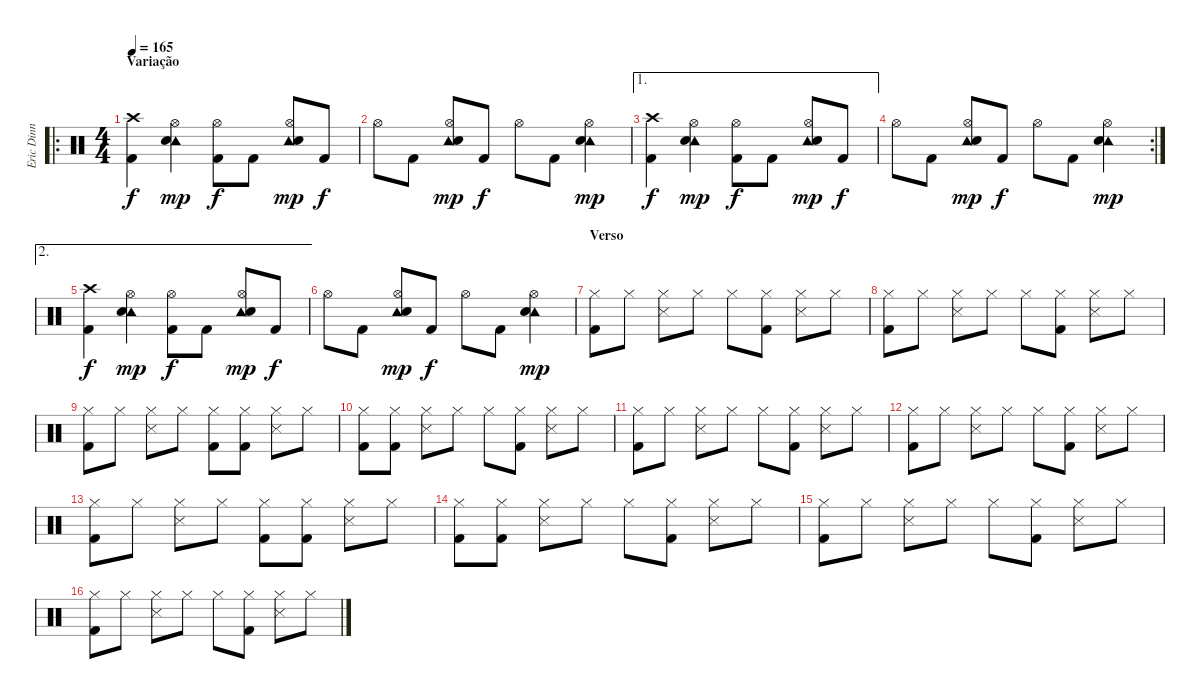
\track ("Eric Dinn" "Eric Dinn") {instrument percussion}
\staff {score}
\articulation defaults
\ro
\ts (4 4)
\section ("" "Variação")
\tempo 165
\clef neutral
\ks c
("Crash high (hit)" "Kick (hit) 2").4{dy f} ("Tambourine (hit)" "Hi-Hat (open)" "Snare (hit) 2").4{dy mp} ("Hi-Hat (open)" "Kick (hit) 2").8{dy f} "Kick (hit) 2".8 ("Tambourine (hit)" "Hi-Hat (open)" "Snare (hit) 2").8{dy mp} "Kick (hit) 2".8{dy f} |
"Hi-Hat (open)".8 "Kick (hit) 2".8 ("Tambourine (hit)" "Hi-Hat (open)" "Snare (hit) 2").8{dy mp} "Kick (hit) 2".8{dy f} "Hi-Hat (open)".8 "Kick (hit) 2".8 ("Tambourine (hit)" "Hi-Hat (open)" "Snare (hit) 2").4{dy mp} |
\ae 1
("Crash high (hit)" "Kick (hit) 2").4{dy f} ("Tambourine (hit)" "Hi-Hat (open)" "Snare (hit) 2").4{dy mp} ("Hi-Hat (open)" "Kick (hit) 2").8{dy f} "Kick (hit) 2".8 ("Tambourine (hit)" "Hi-Hat (open)" "Snare (hit) 2").8{dy mp} "Kick (hit) 2".8{dy f} |
\rc 2 "Hi-Hat (open)".8 "Kick (hit) 2".8
("Tambourine (hit)" "Hi-Hat (open)" "Snare (hit) 2").8{dy mp} "Kick (hit) 2".8{dy f} "Hi-Hat (open)".8 "Kick (hit) 2".8 ("Tambourine (hit)" "Hi-Hat (open)" "Snare (hit) 2").4{dy mp} |
\ae 2
("Crash high (hit)" "Kick (hit) 2").4{dy f} ("Tambourine (hit)" "Hi-Hat (open)" "Snare (hit) 2").4{dy mp} ("Hi-Hat (open)" "Kick (hit) 2").8{dy f} "Kick (hit) 2".8 ("Tambourine (hit)" "Hi-Hat (open)" "Snare (hit) 2").8{dy mp} "Kick (hit) 2".8{dy f} |
"Hi-Hat (open)".8 "Kick (hit) 2".8 ("Tambourine (hit)" "Hi-Hat (open)" "Snare (hit) 2").8{dy mp} "Kick (hit) 2".8{dy f} "Hi-Hat (open)".8 "Kick (hit) 2".8 ("Tambourine (hit)" "Hi-Hat (open)" "Snare (hit) 2").4{dy mp} |
\section ("" "Verso")
("Hi-Hat (closed)" "Kick (hit) 2").8 "Hi-Hat (closed)".8 ("Hi-Hat (closed)" "Snare (side stick) 3").8 "Hi-Hat (closed)".8 "Hi-Hat (closed)".8 ("Hi-Hat (closed)" "Kick (hit) 2").8 ("Hi-Hat (closed)" "Snare (side stick) 3").8 "Hi-Hat (closed)".8 |
("Hi-Hat (closed)" "Kick (hit) 2").8 "Hi-Hat (closed)".8 ("Hi-Hat (closed)" "Snare (side stick) 3").8 "Hi-Hat (closed)".8 "Hi-Hat (closed)".8 ("Hi-Hat (closed)" "Kick (hit) 2").8 ("Hi-Hat (closed)" "Snare (side stick) 3").8 "Hi-Hat (closed)".8 |
("Hi-Hat (closed)" "Kick (hit) 2").8 "Hi-Hat (closed)".8 ("Hi-Hat (closed)" "Snare (side stick) 3").8 "Hi-Hat (closed)".8 ("Hi-Hat (closed)" "Kick (hit) 2").8 ("Hi-Hat (closed)" "Kick (hit) 2").8 ("Hi-Hat (closed)" "Snare (side stick) 3").8 "Hi-Hat (closed)".8 |
("Hi-Hat (closed)" "Kick (hit) 2").8 ("Hi-Hat (closed)" "Kick (hit) 2").8 ("Hi-Hat (closed)" "Snare (side stick) 3").8 "Hi-Hat (closed)".8 "Hi-Hat (closed)".8 ("Hi-Hat (closed)" "Kick (hit) 2").8 ("Hi-Hat (closed)" "Snare (side stick) 3").8 "Hi-Hat (closed)".8 |
("Hi-Hat (closed)" "Kick (hit) 2").8 "Hi-Hat (closed)".8 ("Hi-Hat (closed)" "Snare (side stick) 3").8 "Hi-Hat (closed)".8 "Hi-Hat (closed)".8 ("Hi-Hat (closed)" "Kick (hit) 2").8 ("Hi-Hat (closed)" "Snare (side stick) 3").8 "Hi-Hat (closed)".8 |
("Hi-Hat (closed)" "Kick (hit) 2").8 "Hi-Hat (closed)".8 ("Hi-Hat (closed)" "Snare (side stick) 3").8 "Hi-Hat (closed)".8 "Hi-Hat (closed)".8 ("Hi-Hat (closed)" "Kick (hit) 2").8 ("Hi-Hat (closed)" "Snare (side stick) 3").8 "Hi-Hat (closed)".8 |
("Hi-Hat (closed)" "Kick (hit) 2").8 "Hi-Hat (closed)".8 ("Hi-Hat (closed)" "Snare (side stick) 3").8 "Hi-Hat (closed)".8 ("Hi-Hat (closed)" "Kick (hit) 2").8 ("Hi-Hat (closed)" "Kick (hit) 2").8 ("Hi-Hat (closed)" "Snare (side stick) 3").8 "Hi-Hat (closed)".8 |
("Hi-Hat (closed)" "Kick (hit) 2").8 ("Hi-Hat (closed)" "Kick (hit) 2").8 ("Hi-Hat (closed)" "Snare (side stick) 3").8 "Hi-Hat (closed)".8 "Hi-Hat (closed)".8 ("Hi-Hat (closed)" "Kick (hit) 2").8 ("Hi-Hat (closed)" "Snare (side stick) 3").8 "Hi-Hat (closed)".8 |
("Hi-Hat (closed)" "Kick (hit) 2").8 "Hi-Hat (closed)".8 ("Hi-Hat (closed)" "Snare (side stick) 3").8 "Hi-Hat (closed)".8 "Hi-Hat (closed)".8 ("Hi-Hat (closed)" "Kick (hit) 2").8 ("Hi-Hat (closed)" "Snare (side stick) 3").8 "Hi-Hat (closed)".8 |
("Hi-Hat (closed)" "Kick (hit) 2").8 "Hi-Hat (closed)".8 ("Hi-Hat (closed)" "Snare (side stick) 3").8 "Hi-Hat (closed)".8 "Hi-Hat (closed)".8 ("Hi-Hat (closed)" "Kick (hit) 2").8 ("Hi-Hat (closed)" "Snare (side stick) 3").8 "Hi-Hat (closed)".8
